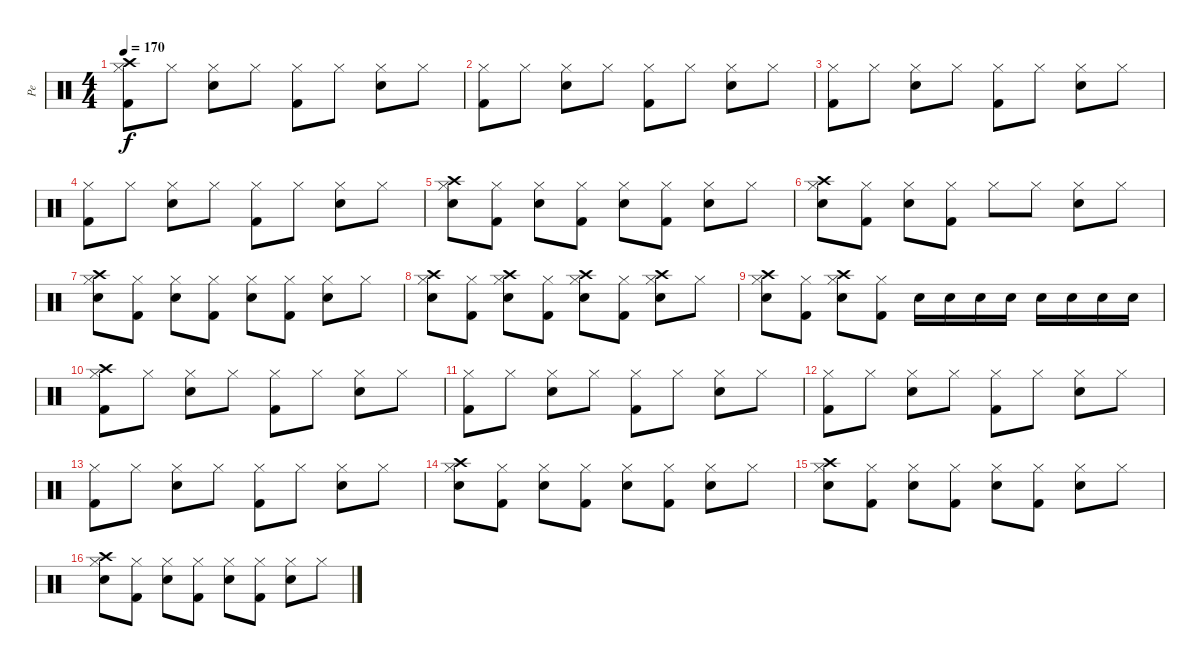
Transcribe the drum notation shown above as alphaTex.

\track ("Pe" "Pe") {instrument percussion}
\staff {score}
\articulation defaults
\ts (4 4)
\tempo 170
\clef neutral
\ks c
("Crash high (hit)" "Hi-Hat (closed)" "Kick (hit) 2").8{dy f} "Hi-Hat (closed)".8 ("Hi-Hat (closed)" "Snare (hit) 2").8 "Hi-Hat (closed)".8 ("Hi-Hat (closed)" "Kick (hit) 2").8 "Hi-Hat (closed)".8 ("Hi-Hat (closed)" "Snare (hit) 2").8 "Hi-Hat (closed)".8 |
("Hi-Hat (closed)" "Kick (hit) 2").8 "Hi-Hat (closed)".8 ("Hi-Hat (closed)" "Snare (hit) 2").8 "Hi-Hat (closed)".8 ("Hi-Hat (closed)" "Kick (hit) 2").8 "Hi-Hat (closed)".8 ("Hi-Hat (closed)" "Snare (hit) 2").8 "Hi-Hat (closed)".8 |
("Hi-Hat (closed)" "Kick (hit) 2").8 "Hi-Hat (closed)".8 ("Hi-Hat (closed)" "Snare (hit) 2").8 "Hi-Hat (closed)".8 ("Hi-Hat (closed)" "Kick (hit) 2").8 "Hi-Hat (closed)".8 ("Hi-Hat (closed)" "Snare (hit) 2").8 "Hi-Hat (closed)".8 |
("Hi-Hat (closed)" "Kick (hit) 2").8 "Hi-Hat (closed)".8 ("Hi-Hat (closed)" "Snare (hit) 2").8 "Hi-Hat (closed)".8 ("Hi-Hat (closed)" "Kick (hit) 2").8 "Hi-Hat (closed)".8 ("Hi-Hat (closed)" "Snare (hit) 2").8 "Hi-Hat (closed)".8 |
("Crash high (hit)" "Hi-Hat (closed)" "Snare (hit) 2").8 ("Hi-Hat (closed)" "Kick (hit) 2").8 ("Hi-Hat (closed)" "Snare (hit) 2").8 ("Hi-Hat (closed)" "Kick (hit) 2").8 ("Hi-Hat (closed)" "Snare (hit) 2").8 ("Hi-Hat (closed)" "Kick (hit) 2").8 ("Hi-Hat (closed)" "Snare (hit) 2").8 "Hi-Hat (closed)".8 |
("Crash high (hit)" "Hi-Hat (closed)" "Snare (hit) 2").8 ("Hi-Hat (closed)" "Kick (hit) 2").8 ("Hi-Hat (closed)" "Snare (hit) 2").8 ("Hi-Hat (closed)" "Kick (hit) 2").8 "Hi-Hat (closed)".8 "Hi-Hat (closed)".8 ("Hi-Hat (closed)" "Snare (hit) 2").8 "Hi-Hat (closed)".8 |
("Crash high (hit)" "Hi-Hat (closed)" "Snare (hit) 2").8 ("Hi-Hat (closed)" "Kick (hit) 2").8 ("Hi-Hat (closed)" "Snare (hit) 2").8 ("Hi-Hat (closed)" "Kick (hit) 2").8 ("Hi-Hat (closed)" "Snare (hit) 2").8 ("Hi-Hat (closed)" "Kick (hit) 2").8 ("Hi-Hat (closed)" "Snare (hit) 2").8 "Hi-Hat (closed)".8 |
("Crash high (hit)" "Hi-Hat (closed)" "Snare (hit) 2").8 ("Hi-Hat (closed)" "Kick (hit) 2").8 ("Crash high (hit)" "Hi-Hat (closed)" "Snare (hit) 2").8 ("Hi-Hat (closed)" "Kick (hit) 2").8 ("Crash high (hit)" "Hi-Hat (closed)" "Snare (hit) 2").8 ("Hi-Hat (closed)" "Kick (hit) 2").8 ("Crash high (hit)" "Hi-Hat (closed)" "Snare (hit) 2").8 "Hi-Hat (closed)".8 |
("Crash high (hit)" "Hi-Hat (closed)" "Snare (hit) 2").8 ("Hi-Hat (closed)" "Kick (hit) 2").8 ("Crash high (hit)" "Hi-Hat (closed)" "Snare (hit) 2").8 ("Hi-Hat (closed)" "Kick (hit) 2").8 "Snare (hit) 2".16 "Snare (hit) 2".16 "Snare (hit) 2".16 "Snare (hit) 2".16 "Snare (hit) 2".16 "Snare (hit) 2".16 "Snare (hit) 2".16 "Snare (hit) 2".16 |
("Crash high (hit)" "Hi-Hat (closed)" "Kick (hit) 2").8 "Hi-Hat (closed)".8 ("Hi-Hat (closed)" "Snare (hit) 2").8 "Hi-Hat (closed)".8 ("Hi-Hat (closed)" "Kick (hit) 2").8 "Hi-Hat (closed)".8 ("Hi-Hat (closed)" "Snare (hit) 2").8 "Hi-Hat (closed)".8 |
("Hi-Hat (closed)" "Kick (hit) 2").8 "Hi-Hat (closed)".8 ("Hi-Hat (closed)" "Snare (hit) 2").8 "Hi-Hat (closed)".8 ("Hi-Hat (closed)" "Kick (hit) 2").8 "Hi-Hat (closed)".8 ("Hi-Hat (closed)" "Snare (hit) 2").8 "Hi-Hat (closed)".8 |
("Hi-Hat (closed)" "Kick (hit) 2").8 "Hi-Hat (closed)".8 ("Hi-Hat (closed)" "Snare (hit) 2").8 "Hi-Hat (closed)".8 ("Hi-Hat (closed)" "Kick (hit) 2").8 "Hi-Hat (closed)".8 ("Hi-Hat (closed)" "Snare (hit) 2").8 "Hi-Hat (closed)".8 |
("Hi-Hat (closed)" "Kick (hit) 2").8 "Hi-Hat (closed)".8 ("Hi-Hat (closed)" "Snare (hit) 2").8 "Hi-Hat (closed)".8 ("Hi-Hat (closed)" "Kick (hit) 2").8 "Hi-Hat (closed)".8 ("Hi-Hat (closed)" "Snare (hit) 2").8 "Hi-Hat (closed)".8 |
("Crash high (hit)" "Hi-Hat (closed)" "Snare (hit) 2").8 ("Hi-Hat (closed)" "Kick (hit) 2").8 ("Hi-Hat (closed)" "Snare (hit) 2").8 ("Hi-Hat (closed)" "Kick (hit) 2").8 ("Hi-Hat (closed)" "Snare (hit) 2").8 ("Hi-Hat (closed)" "Kick (hit) 2").8 ("Hi-Hat (closed)" "Snare (hit) 2").8 "Hi-Hat (closed)".8 |
("Crash high (hit)" "Hi-Hat (closed)" "Snare (hit) 2").8 ("Hi-Hat (closed)" "Kick (hit) 2").8 ("Hi-Hat (closed)" "Snare (hit) 2").8 ("Hi-Hat (closed)" "Kick (hit) 2").8 ("Hi-Hat (closed)" "Snare (hit) 2").8 ("Hi-Hat (closed)" "Kick (hit) 2").8 ("Hi-Hat (closed)" "Snare (hit) 2").8 "Hi-Hat (closed)".8 |
("Crash high (hit)" "Hi-Hat (closed)" "Snare (hit) 2").8 ("Hi-Hat (closed)" "Kick (hit) 2").8 ("Hi-Hat (closed)" "Snare (hit) 2").8 ("Hi-Hat (closed)" "Kick (hit) 2").8 ("Hi-Hat (closed)" "Snare (hit) 2").8 ("Hi-Hat (closed)" "Kick (hit) 2").8 ("Hi-Hat (closed)" "Snare (hit) 2").8 "Hi-Hat (closed)".8
